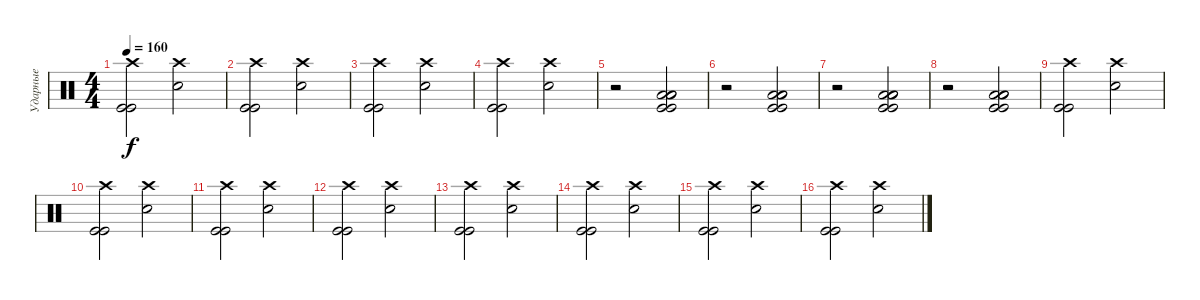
\track ("Ударные" "Ударные") {instrument percussion}
\staff {score}
\articulation defaults
\ts (4 4)
\tempo 160
\clef neutral
\ks c
("Crash high (hit)" "Kick (hit)" "Kick (hit)").2{dy f} ("Crash high (hit)" "Electric Snare (hit)").2 |
("Crash high (hit)" "Kick (hit)" "Kick (hit)").2 ("Crash high (hit)" "Electric Snare (hit)").2 |
("Crash high (hit)" "Kick (hit)" "Kick (hit)").2 ("Crash high (hit)" "Electric Snare (hit)").2 |
("Crash high (hit)" "Kick (hit)" "Kick (hit)").2 ("Crash high (hit)" "Electric Snare (hit)").2 |
r.2 ("Low Floor Tom (hit)" "Low Floor Tom (hit)" "Low Tom (hit)" "Kick (hit)" "Kick (hit)").2 |
r.2 ("Low Floor Tom (hit)" "Low Floor Tom (hit)" "Low Tom (hit)" "Kick (hit)" "Kick (hit)").2 |
r.2 ("Low Floor Tom (hit)" "Low Floor Tom (hit)" "Low Tom (hit)" "Kick (hit)" "Kick (hit)").2 |
r.2 ("Low Floor Tom (hit)" "Low Floor Tom (hit)" "Low Tom (hit)" "Kick (hit)" "Kick (hit)").2 |
("Crash high (hit)" "Kick (hit)" "Kick (hit)").2 ("Crash high (hit)" "Electric Snare (hit)").2 |
("Crash high (hit)" "Kick (hit)" "Kick (hit)").2 ("Crash high (hit)" "Electric Snare (hit)").2 |
("Crash high (hit)" "Kick (hit)" "Kick (hit)").2 ("Crash high (hit)" "Electric Snare (hit)").2 |
("Crash high (hit)" "Kick (hit)" "Kick (hit)").2 ("Crash high (hit)" "Electric Snare (hit)").2 |
("Crash high (hit)" "Kick (hit)" "Kick (hit)").2 ("Crash high (hit)" "Electric Snare (hit)").2 |
("Crash high (hit)" "Kick (hit)" "Kick (hit)").2 ("Crash high (hit)" "Electric Snare (hit)").2 |
("Crash high (hit)" "Kick (hit)" "Kick (hit)").2 ("Crash high (hit)" "Electric Snare (hit)").2 |
("Crash high (hit)" "Kick (hit)" "Kick (hit)").2 ("Crash high (hit)" "Electric Snare (hit)").2
